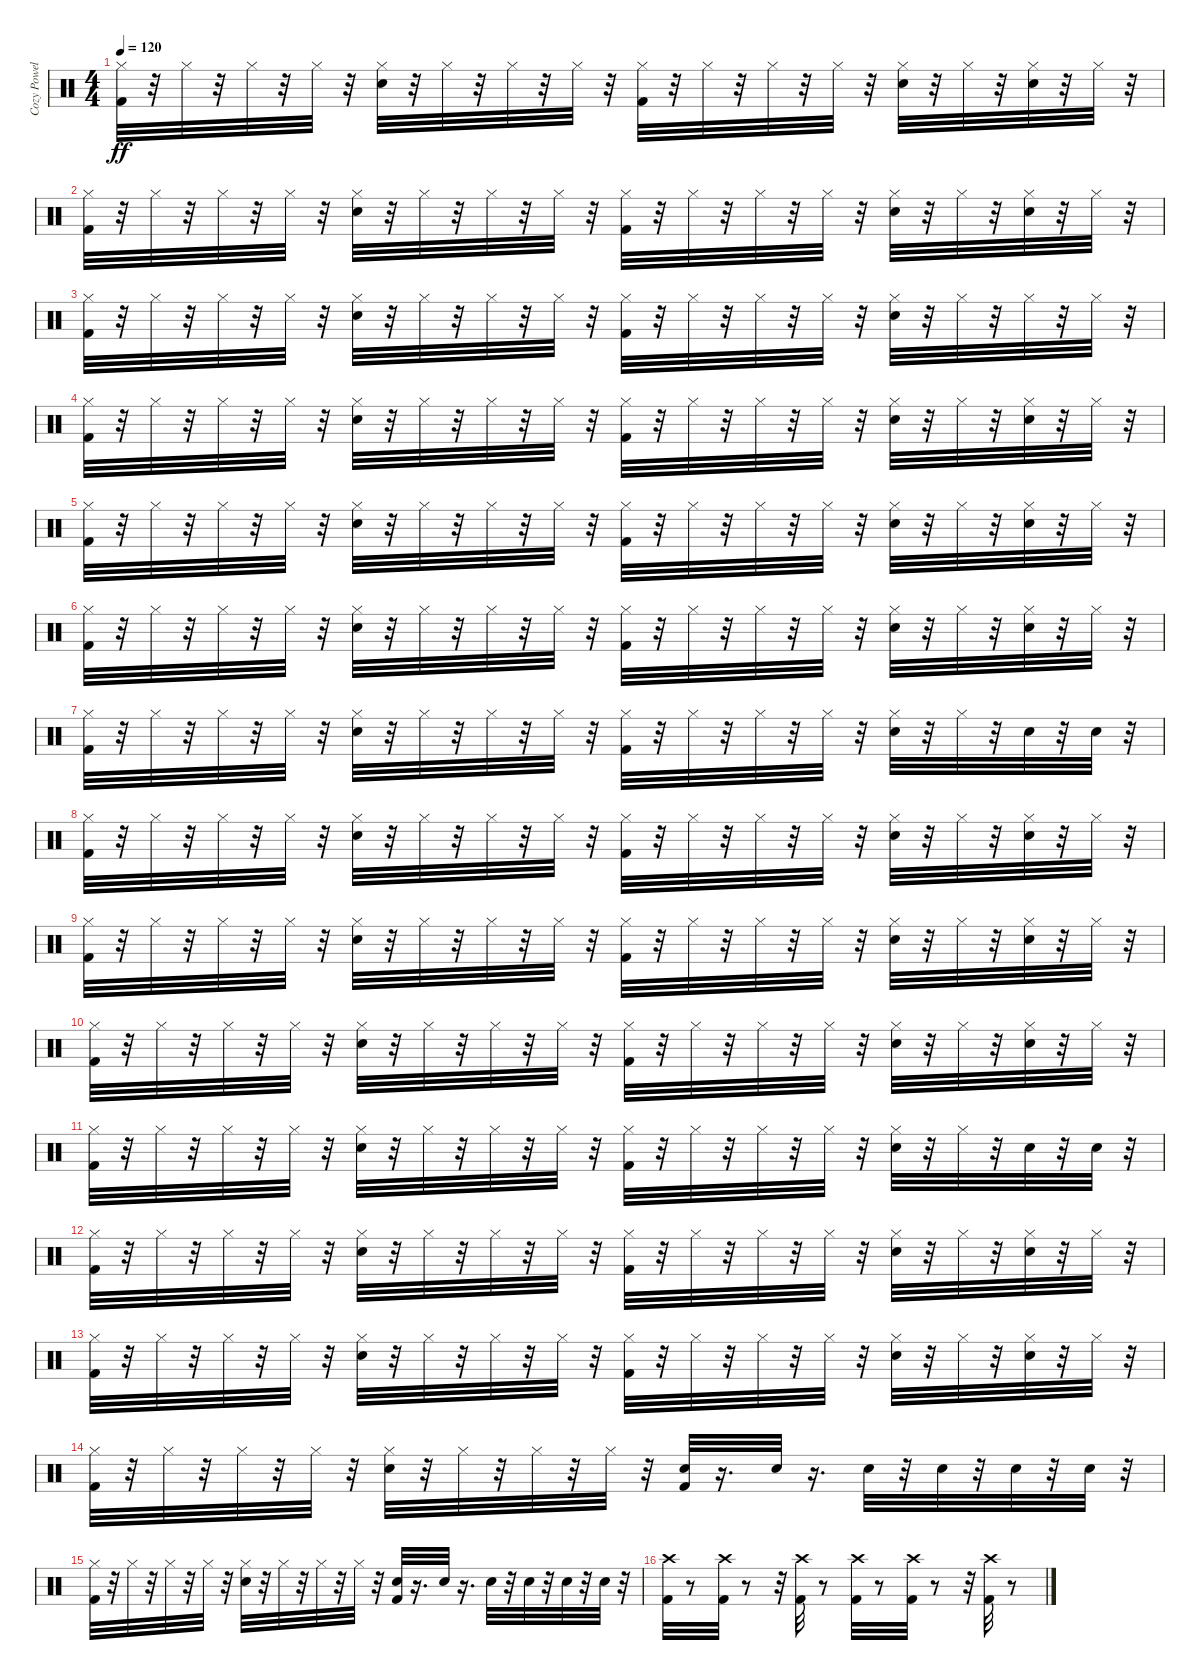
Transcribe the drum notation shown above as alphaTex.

\track ("Cozy Powel" "Cozy Powel") {instrument percussion}
\staff {score}
\articulation defaults
\ts (4 4)
\tempo 120
\clef neutral
\ks c
("Hi-Hat (closed)" "Kick (hit) 2").32{dy ff} r.32 "Hi-Hat (closed)".32 r.32 "Hi-Hat (closed)".32 r.32 "Hi-Hat (closed)".32 r.32 ("Hi-Hat (closed)" "Snare (hit) 2").32 r.32 "Hi-Hat (closed)".32 r.32 "Hi-Hat (closed)".32 r.32 "Hi-Hat (closed)".32 r.32 ("Hi-Hat (closed)" "Kick (hit) 2").32 r.32 "Hi-Hat (closed)".32 r.32 "Hi-Hat (closed)".32 r.32 "Hi-Hat (closed)".32 r.32 ("Hi-Hat (closed)" "Snare (hit) 2").32 r.32 "Hi-Hat (closed)".32 r.32 ("Hi-Hat (closed)" "Snare (hit) 2").32 r.32 "Hi-Hat (closed)".32 r.32 |
("Hi-Hat (closed)" "Kick (hit) 2").32 r.32 "Hi-Hat (closed)".32 r.32 "Hi-Hat (closed)".32 r.32 "Hi-Hat (closed)".32 r.32 ("Hi-Hat (closed)" "Snare (hit) 2").32 r.32 "Hi-Hat (closed)".32 r.32 "Hi-Hat (closed)".32 r.32 "Hi-Hat (closed)".32 r.32 ("Hi-Hat (closed)" "Kick (hit) 2").32 r.32 "Hi-Hat (closed)".32 r.32 "Hi-Hat (closed)".32 r.32 "Hi-Hat (closed)".32 r.32 ("Hi-Hat (closed)" "Snare (hit) 2").32 r.32 "Hi-Hat (closed)".32 r.32 ("Hi-Hat (closed)" "Snare (hit) 2").32 r.32 "Hi-Hat (closed)".32 r.32 |
("Hi-Hat (closed)" "Kick (hit) 2").32 r.32 "Hi-Hat (closed)".32 r.32 "Hi-Hat (closed)".32 r.32 "Hi-Hat (closed)".32 r.32 ("Hi-Hat (closed)" "Snare (hit) 2").32 r.32 "Hi-Hat (closed)".32 r.32 "Hi-Hat (closed)".32 r.32 "Hi-Hat (closed)".32 r.32 ("Hi-Hat (closed)" "Kick (hit) 2").32 r.32 "Hi-Hat (closed)".32 r.32 "Hi-Hat (closed)".32 r.32 "Hi-Hat (closed)".32 r.32 ("Hi-Hat (closed)" "Snare (hit) 2").32 r.32 "Hi-Hat (closed)".32 r.32 "Hi-Hat (closed)".32 r.32 "Hi-Hat (closed)".32 r.32 |
("Hi-Hat (closed)" "Kick (hit) 2").32 r.32 "Hi-Hat (closed)".32 r.32 "Hi-Hat (closed)".32 r.32 "Hi-Hat (closed)".32 r.32 ("Hi-Hat (closed)" "Snare (hit) 2").32 r.32 "Hi-Hat (closed)".32 r.32 "Hi-Hat (closed)".32 r.32 "Hi-Hat (closed)".32 r.32 ("Hi-Hat (closed)" "Kick (hit) 2").32 r.32 "Hi-Hat (closed)".32 r.32 "Hi-Hat (closed)".32 r.32 "Hi-Hat (closed)".32 r.32 ("Hi-Hat (closed)" "Snare (hit) 2").32 r.32 "Hi-Hat (closed)".32 r.32 ("Hi-Hat (closed)" "Snare (hit) 2").32 r.32 "Hi-Hat (closed)".32 r.32 |
("Hi-Hat (closed)" "Kick (hit) 2").32 r.32 "Hi-Hat (closed)".32 r.32 "Hi-Hat (closed)".32 r.32 "Hi-Hat (closed)".32 r.32 ("Hi-Hat (closed)" "Snare (hit) 2").32 r.32 "Hi-Hat (closed)".32 r.32 "Hi-Hat (closed)".32 r.32 "Hi-Hat (closed)".32 r.32 ("Hi-Hat (closed)" "Kick (hit) 2").32 r.32 "Hi-Hat (closed)".32 r.32 "Hi-Hat (closed)".32 r.32 "Hi-Hat (closed)".32 r.32 ("Hi-Hat (closed)" "Snare (hit) 2").32 r.32 "Hi-Hat (closed)".32 r.32 ("Hi-Hat (closed)" "Snare (hit) 2").32 r.32 "Hi-Hat (closed)".32 r.32 |
("Hi-Hat (closed)" "Kick (hit) 2").32 r.32 "Hi-Hat (closed)".32 r.32 "Hi-Hat (closed)".32 r.32 "Hi-Hat (closed)".32 r.32 ("Hi-Hat (closed)" "Snare (hit) 2").32 r.32 "Hi-Hat (closed)".32 r.32 "Hi-Hat (closed)".32 r.32 "Hi-Hat (closed)".32 r.32 ("Hi-Hat (closed)" "Kick (hit) 2").32 r.32 "Hi-Hat (closed)".32 r.32 "Hi-Hat (closed)".32 r.32 "Hi-Hat (closed)".32 r.32 ("Hi-Hat (closed)" "Snare (hit) 2").32 r.32 "Hi-Hat (closed)".32 r.32 ("Hi-Hat (closed)" "Snare (hit) 2").32 r.32 "Hi-Hat (closed)".32 r.32 |
("Hi-Hat (closed)" "Kick (hit) 2").32 r.32 "Hi-Hat (closed)".32 r.32 "Hi-Hat (closed)".32 r.32 "Hi-Hat (closed)".32 r.32 ("Hi-Hat (closed)" "Snare (hit) 2").32 r.32 "Hi-Hat (closed)".32 r.32 "Hi-Hat (closed)".32 r.32 "Hi-Hat (closed)".32 r.32 ("Hi-Hat (closed)" "Kick (hit) 2").32 r.32 "Hi-Hat (closed)".32 r.32 "Hi-Hat (closed)".32 r.32 "Hi-Hat (closed)".32 r.32 ("Hi-Hat (closed)" "Snare (hit) 2").32 r.32 "Hi-Hat (closed)".32 r.32 "Snare (hit) 2".32 r.32 "Snare (hit) 2".32 r.32 |
("Hi-Hat (closed)" "Kick (hit) 2").32 r.32 "Hi-Hat (closed)".32 r.32 "Hi-Hat (closed)".32 r.32 "Hi-Hat (closed)".32 r.32 ("Hi-Hat (closed)" "Snare (hit) 2").32 r.32 "Hi-Hat (closed)".32 r.32 "Hi-Hat (closed)".32 r.32 "Hi-Hat (closed)".32 r.32 ("Hi-Hat (closed)" "Kick (hit) 2").32 r.32 "Hi-Hat (closed)".32 r.32 "Hi-Hat (closed)".32 r.32 "Hi-Hat (closed)".32 r.32 ("Hi-Hat (closed)" "Snare (hit) 2").32 r.32 "Hi-Hat (closed)".32 r.32 ("Hi-Hat (closed)" "Snare (hit) 2").32 r.32 "Hi-Hat (closed)".32 r.32 |
("Hi-Hat (closed)" "Kick (hit) 2").32 r.32 "Hi-Hat (closed)".32 r.32 "Hi-Hat (closed)".32 r.32 "Hi-Hat (closed)".32 r.32 ("Hi-Hat (closed)" "Snare (hit) 2").32 r.32 "Hi-Hat (closed)".32 r.32 "Hi-Hat (closed)".32 r.32 "Hi-Hat (closed)".32 r.32 ("Hi-Hat (closed)" "Kick (hit) 2").32 r.32 "Hi-Hat (closed)".32 r.32 "Hi-Hat (closed)".32 r.32 "Hi-Hat (closed)".32 r.32 ("Hi-Hat (closed)" "Snare (hit) 2").32 r.32 "Hi-Hat (closed)".32 r.32 ("Hi-Hat (closed)" "Snare (hit) 2").32 r.32 "Hi-Hat (closed)".32 r.32 |
("Hi-Hat (closed)" "Kick (hit) 2").32 r.32 "Hi-Hat (closed)".32 r.32 "Hi-Hat (closed)".32 r.32 "Hi-Hat (closed)".32 r.32 ("Hi-Hat (closed)" "Snare (hit) 2").32 r.32 "Hi-Hat (closed)".32 r.32 "Hi-Hat (closed)".32 r.32 "Hi-Hat (closed)".32 r.32 ("Hi-Hat (closed)" "Kick (hit) 2").32 r.32 "Hi-Hat (closed)".32 r.32 "Hi-Hat (closed)".32 r.32 "Hi-Hat (closed)".32 r.32 ("Hi-Hat (closed)" "Snare (hit) 2").32 r.32 "Hi-Hat (closed)".32 r.32 ("Hi-Hat (closed)" "Snare (hit) 2").32 r.32 "Hi-Hat (closed)".32 r.32 |
("Hi-Hat (closed)" "Kick (hit) 2").32 r.32 "Hi-Hat (closed)".32 r.32 "Hi-Hat (closed)".32 r.32 "Hi-Hat (closed)".32 r.32 ("Hi-Hat (closed)" "Snare (hit) 2").32 r.32 "Hi-Hat (closed)".32 r.32 "Hi-Hat (closed)".32 r.32 "Hi-Hat (closed)".32 r.32 ("Hi-Hat (closed)" "Kick (hit) 2").32 r.32 "Hi-Hat (closed)".32 r.32 "Hi-Hat (closed)".32 r.32 "Hi-Hat (closed)".32 r.32 ("Hi-Hat (closed)" "Snare (hit) 2").32 r.32 "Hi-Hat (closed)".32 r.32 "Snare (hit) 2".32 r.32 "Snare (hit) 2".32 r.32 |
("Hi-Hat (closed)" "Kick (hit) 2").32 r.32 "Hi-Hat (closed)".32 r.32 "Hi-Hat (closed)".32 r.32 "Hi-Hat (closed)".32 r.32 ("Hi-Hat (closed)" "Snare (hit) 2").32 r.32 "Hi-Hat (closed)".32 r.32 "Hi-Hat (closed)".32 r.32 "Hi-Hat (closed)".32 r.32 ("Hi-Hat (closed)" "Kick (hit) 2").32 r.32 "Hi-Hat (closed)".32 r.32 "Hi-Hat (closed)".32 r.32 "Hi-Hat (closed)".32 r.32 ("Hi-Hat (closed)" "Snare (hit) 2").32 r.32 "Hi-Hat (closed)".32 r.32 ("Hi-Hat (closed)" "Snare (hit) 2").32 r.32 "Hi-Hat (closed)".32 r.32 |
("Hi-Hat (closed)" "Kick (hit) 2").32 r.32 "Hi-Hat (closed)".32 r.32 "Hi-Hat (closed)".32 r.32 "Hi-Hat (closed)".32 r.32 ("Hi-Hat (closed)" "Snare (hit) 2").32 r.32 "Hi-Hat (closed)".32 r.32 "Hi-Hat (closed)".32 r.32 "Hi-Hat (closed)".32 r.32 ("Hi-Hat (closed)" "Kick (hit) 2").32 r.32 "Hi-Hat (closed)".32 r.32 "Hi-Hat (closed)".32 r.32 "Hi-Hat (closed)".32 r.32 ("Hi-Hat (closed)" "Snare (hit) 2").32 r.32 "Hi-Hat (closed)".32 r.32 ("Hi-Hat (closed)" "Snare (hit) 2").32 r.32 "Hi-Hat (closed)".32 r.32 |
("Kick (hit) 2" "Hi-Hat (closed)").32 r.32 "Hi-Hat (closed)".32 r.32 "Hi-Hat (closed)".32 r.32 "Hi-Hat (closed)".32 r.32 ("Snare (hit) 2" "Hi-Hat (closed)").32 r.32 "Hi-Hat (closed)".32 r.32 "Hi-Hat (closed)".32 r.32 "Hi-Hat (closed)".32 r.32 ("Kick (hit) 2" "Snare (hit) 2").32 r.16{d} "Snare (hit) 2".32 r.16{d} "Snare (hit) 2".32 r.32 "Snare (hit) 2".32 r.32 "Snare (hit) 2".32 r.32 "Snare (hit) 2".32 r.32 |
("Kick (hit) 2" "Hi-Hat (closed)").32 r.32 "Hi-Hat (closed)".32 r.32 "Hi-Hat (closed)".32 r.32 "Hi-Hat (closed)".32 r.32 ("Snare (hit) 2" "Hi-Hat (closed)").32 r.32 "Hi-Hat (closed)".32 r.32 "Hi-Hat (closed)".32 r.32 "Hi-Hat (closed)".32 r.32 ("Kick (hit) 2" "Snare (hit) 2").32 r.16{d} "Snare (hit) 2".32 r.16{d} "Snare (hit) 2".32 r.32 "Snare (hit) 2".32 r.32 "Snare (hit) 2".32 r.32 "Snare (hit) 2".32 r.32 |
("Kick (hit) 2" "Crash high (hit)").32 r.8 ("Kick (hit) 2" "Crash high (hit)").32 r.8 r.32 ("Kick (hit) 2" "Crash high (hit)").32 r.8 ("Kick (hit) 2" "Crash high (hit)").32 r.8 ("Kick (hit) 2" "Crash high (hit)").32 r.8 r.32 ("Kick (hit) 2" "Crash high (hit)").32 r.8
